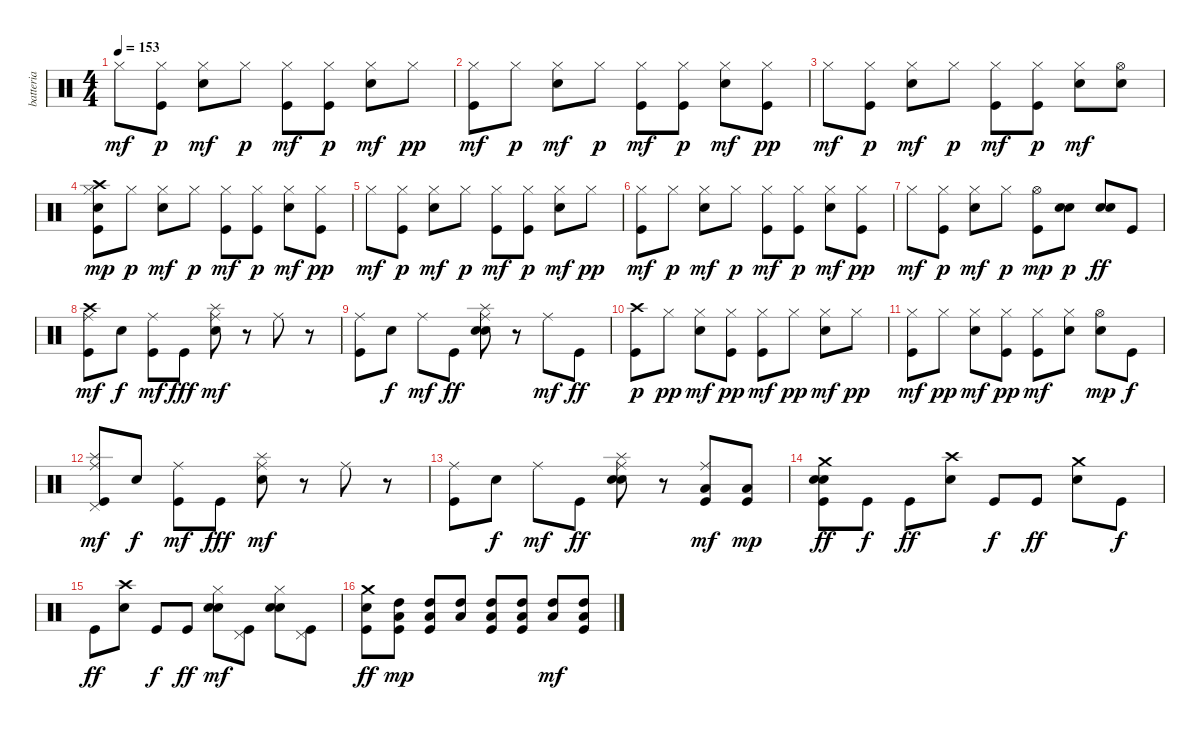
\track ("batteria" "batteria") {instrument percussion}
\staff {score}
\articulation defaults
\ts (4 4)
\tempo 153
\clef neutral
\ks c "Hi-Hat (closed)".8{dy mf}
("Kick (hit)" "Hi-Hat (closed)").8{dy p} ("Hi-Hat (closed)" "Electric Snare (hit)").8{dy mf} "Hi-Hat (closed)".8{dy p} ("Kick (hit)" "Hi-Hat (closed)").8{dy mf} ("Kick (hit)" "Hi-Hat (closed)").8{dy p} ("Hi-Hat (closed)" "Electric Snare (hit)").8{dy mf} "Hi-Hat (closed)".8{dy pp} |
("Kick (hit)" "Hi-Hat (closed)").8{dy mf} "Hi-Hat (closed)".8{dy p} ("Hi-Hat (closed)" "Electric Snare (hit)").8{dy mf} "Hi-Hat (closed)".8{dy p} ("Kick (hit)" "Hi-Hat (closed)").8{dy mf} ("Kick (hit)" "Hi-Hat (closed)").8{dy p} ("Hi-Hat (closed)" "Electric Snare (hit)").8{dy mf} ("Kick (hit)" "Hi-Hat (closed)").8{dy pp} |
"Hi-Hat (closed)".8{dy mf} ("Kick (hit)" "Hi-Hat (closed)").8{dy p} ("Hi-Hat (closed)" "Electric Snare (hit)").8{dy mf} "Hi-Hat (closed)".8{dy p} ("Kick (hit)" "Hi-Hat (closed)").8{dy mf} ("Kick (hit)" "Hi-Hat (closed)").8{dy p} ("Hi-Hat (closed)" "Electric Snare (hit)").8{dy mf} ("Hi-Hat (open)" "Electric Snare (hit)").8 |
("Electric Snare (hit)" "Kick (hit)" "Hi-Hat (closed)" "Crash high (hit)").8{dy mp} "Hi-Hat (closed)".8{dy p} ("Hi-Hat (closed)" "Electric Snare (hit)").8{dy mf} "Hi-Hat (closed)".8{dy p} ("Kick (hit)" "Hi-Hat (closed)").8{dy mf} ("Kick (hit)" "Hi-Hat (closed)").8{dy p} ("Hi-Hat (closed)" "Electric Snare (hit)").8{dy mf} ("Kick (hit)" "Hi-Hat (closed)").8{dy pp} |
"Hi-Hat (closed)".8{dy mf} ("Kick (hit)" "Hi-Hat (closed)").8{dy p} ("Hi-Hat (closed)" "Electric Snare (hit)").8{dy mf} "Hi-Hat (closed)".8{dy p} ("Kick (hit)" "Hi-Hat (closed)").8{dy mf} ("Kick (hit)" "Hi-Hat (closed)").8{dy p} ("Hi-Hat (closed)" "Electric Snare (hit)").8{dy mf} "Hi-Hat (closed)".8{dy pp} |
("Kick (hit)" "Hi-Hat (closed)").8{dy mf} "Hi-Hat (closed)".8{dy p} ("Hi-Hat (closed)" "Electric Snare (hit)").8{dy mf} "Hi-Hat (closed)".8{dy p} ("Kick (hit)" "Hi-Hat (closed)").8{dy mf} ("Kick (hit)" "Hi-Hat (closed)").8{dy p} ("Hi-Hat (closed)" "Electric Snare (hit)").8{dy mf} ("Kick (hit)" "Hi-Hat (closed)").8{dy pp} |
"Hi-Hat (closed)".8{dy mf} ("Kick (hit)" "Hi-Hat (closed)").8{dy p} ("Hi-Hat (closed)" "Electric Snare (hit)").8{dy mf} "Hi-Hat (closed)".8{dy p} ("Kick (hit)" "Hi-Hat (open)").8{dy mp} ("Electric Snare (hit)" "Electric Snare (hit)").8{dy p} ("Electric Snare (hit)" "Electric Snare (hit)").8{dy ff} "Kick (hit)".8 |
("Kick (hit)" "Crash high (hit)" "Ride (middle)").8{dy mf} "Electric Snare (hit)".8{dy f} ("Kick (hit)" "Ride (middle)").8{dy mf} "Kick (hit)".8{dy fff} ("Ride (middle)" "Splash (hit)" "Electric Snare (hit)").8{dy mf} r.8 "Ride (middle)".8 r.8 |
("Kick (hit)" "Ride (middle)").8 "Electric Snare (hit)".8{dy f} "Ride (middle)".8{dy mf} "Kick (hit)".8{dy ff} ("Electric Snare (hit)" "Ride (middle)" "Splash (hit)" "Electric Snare (hit)").8 r.8 "Ride (middle)".8{dy mf} "Kick (hit)".8{dy ff} |
("Kick (hit)" "Crash high (hit)").8{dy p} "Hi-Hat (closed)".8{dy pp} ("Hi-Hat (closed)" "Electric Snare (hit)").8{dy mf} ("Kick (hit)" "Hi-Hat (closed)").8{dy pp} ("Kick (hit)" "Hi-Hat (closed)").8{dy mf} "Hi-Hat (closed)".8{dy pp} ("Hi-Hat (closed)" "Electric Snare (hit)").8{dy mf} "Hi-Hat (closed)".8{dy pp} |
("Kick (hit)" "Hi-Hat (closed)").8{dy mf} "Hi-Hat (closed)".8{dy pp} ("Hi-Hat (closed)" "Electric Snare (hit)").8{dy mf} ("Kick (hit)" "Hi-Hat (closed)").8{dy pp} ("Kick (hit)" "Hi-Hat (closed)").8{dy mf} ("Hi-Hat (closed)" "Electric Snare (hit)").8 ("Hi-Hat (open)" "Electric Snare (hit)").8{dy mp} "Kick (hit)".8{dy f} |
("Kick (hit)" "Pedal Hi-Hat (hit)" "Ride (middle)" "Splash (hit)").8{dy mf} "Electric Snare (hit)".8{dy f} ("Kick (hit)" "Ride (middle)").8{dy mf} "Kick (hit)".8{dy fff} ("Ride (middle)" "Splash (hit)" "Electric Snare (hit)").8{dy mf} r.8 "Ride (middle)".8 r.8 |
("Kick (hit)" "Ride (middle)").8 "Electric Snare (hit)".8{dy f} "Ride (middle)".8{dy mf} "Kick (hit)".8{dy ff} ("Electric Snare (hit)" "Ride (middle)" "Splash (hit)" "Electric Snare (hit)").8 r.8 ("Kick (hit)" "Ride (middle)" "Low Tom (hit)").8{dy mf} ("Kick (hit)" "Low Tom (hit)").8{dy mp} |
("Electric Snare (hit)" "Kick (hit)" "Crash medium (hit)" "Electric Snare (hit)").8{dy ff} "Kick (hit)".8{dy f} "Kick (hit)".8{dy ff} ("Crash high (hit)" "Electric Snare (hit)").8 "Kick (hit)".8{dy f} "Kick (hit)".8{dy ff} ("Crash medium (hit)" "Electric Snare (hit)").8 "Kick (hit)".8{dy f} |
"Kick (hit)".8{dy ff} ("Crash high (hit)" "Electric Snare (hit)").8 "Kick (hit)".8{dy f} "Kick (hit)".8{dy ff} ("Electric Snare (hit)" "Hi-Hat (closed)" "Electric Snare (hit)").8{dy mf} ("Kick (hit)" "Pedal Hi-Hat (hit)").8 ("Electric Snare (hit)" "Hi-Hat (closed)" "Electric Snare (hit)").8 ("Kick (hit)" "Pedal Hi-Hat (hit)").8 |
("Kick (hit)" "Crash medium (hit)" "Electric Snare (hit)").8{dy ff} ("Kick (hit)" "High Tom (hit)" "Low Tom (hit)").8{dy mp} ("Kick (hit)" "High Tom (hit)" "Low Tom (hit)").8 ("High Tom (hit)" "Low Tom (hit)").8 ("Kick (hit)" "High Tom (hit)" "Low Tom (hit)").8 ("Kick (hit)" "High Tom (hit)" "Low Tom (hit)").8 ("High Tom (hit)" "Low Tom (hit)").8{dy mf} ("Kick (hit)" "High Tom (hit)" "Low Tom (hit)").8
